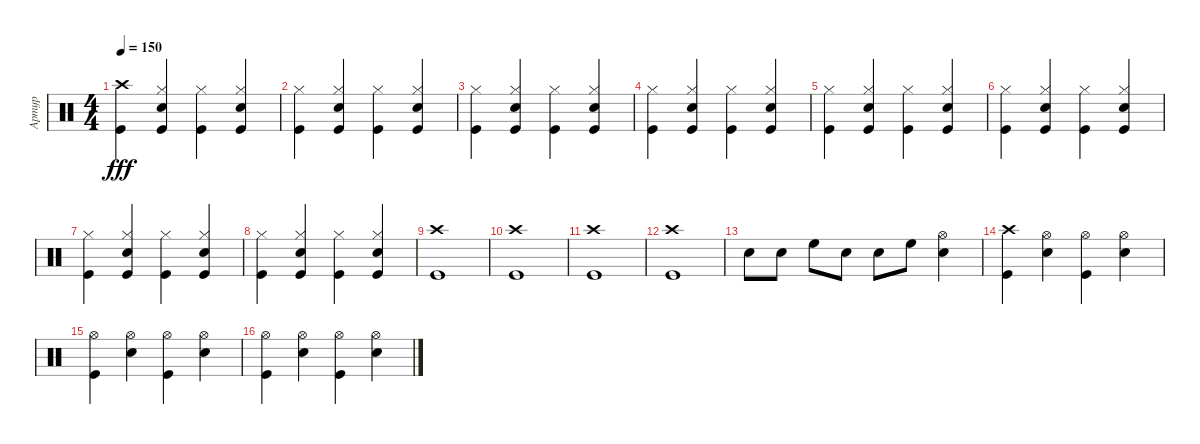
\track ("Артур" "Артур") {instrument percussion}
\staff {score}
\articulation defaults
\ts (4 4)
\tempo 150
\clef neutral
\ks c
("Crash high (hit)" "Kick (hit)").4{dy fff} ("Hi-Hat (closed)" "Electric Snare (hit)" "Kick (hit)").4 ("Hi-Hat (closed)" "Kick (hit)").4 ("Hi-Hat (closed)" "Electric Snare (hit)" "Kick (hit)").4 |
("Hi-Hat (closed)" "Kick (hit)").4 ("Hi-Hat (closed)" "Electric Snare (hit)" "Kick (hit)").4 ("Hi-Hat (closed)" "Kick (hit)").4 ("Hi-Hat (closed)" "Electric Snare (hit)" "Kick (hit)").4 |
("Hi-Hat (closed)" "Kick (hit)").4 ("Hi-Hat (closed)" "Electric Snare (hit)" "Kick (hit)").4 ("Hi-Hat (closed)" "Kick (hit)").4 ("Hi-Hat (closed)" "Electric Snare (hit)" "Kick (hit)").4 |
("Hi-Hat (closed)" "Kick (hit)").4 ("Hi-Hat (closed)" "Electric Snare (hit)" "Kick (hit)").4 ("Hi-Hat (closed)" "Kick (hit)").4 ("Hi-Hat (closed)" "Electric Snare (hit)" "Kick (hit)").4 |
("Hi-Hat (closed)" "Kick (hit)").4 ("Hi-Hat (closed)" "Electric Snare (hit)" "Kick (hit)").4 ("Hi-Hat (closed)" "Kick (hit)").4 ("Hi-Hat (closed)" "Electric Snare (hit)" "Kick (hit)").4 |
("Hi-Hat (closed)" "Kick (hit)").4 ("Hi-Hat (closed)" "Electric Snare (hit)" "Kick (hit)").4 ("Hi-Hat (closed)" "Kick (hit)").4 ("Hi-Hat (closed)" "Electric Snare (hit)" "Kick (hit)").4 |
("Hi-Hat (closed)" "Kick (hit)").4 ("Hi-Hat (closed)" "Electric Snare (hit)" "Kick (hit)").4 ("Hi-Hat (closed)" "Kick (hit)").4 ("Hi-Hat (closed)" "Electric Snare (hit)" "Kick (hit)").4 |
("Hi-Hat (closed)" "Kick (hit)").4 ("Hi-Hat (closed)" "Electric Snare (hit)" "Kick (hit)").4 ("Hi-Hat (closed)" "Kick (hit)").4 ("Hi-Hat (closed)" "Electric Snare (hit)" "Kick (hit)").4 |
("Kick (hit)" "Crash high (hit)").1 |
("Kick (hit)" "Crash high (hit)").1 |
("Kick (hit)" "Crash high (hit)").1 |
("Kick (hit)" "Crash high (hit)").1 |
"Electric Snare (hit)".8 "Electric Snare (hit)".8 "High Floor Tom (hit)".8 "Electric Snare (hit)".8 "Electric Snare (hit)".8 "High Floor Tom (hit)".8 ("Electric Snare (hit)" "Hi-Hat (open)").4 |
("Kick (hit)" "Crash high (hit)").4 ("Hi-Hat (open)" "Electric Snare (hit)").4 ("Hi-Hat (open)" "Kick (hit)").4 ("Hi-Hat (open)" "Electric Snare (hit)").4 |
("Kick (hit)" "Hi-Hat (open)").4 ("Hi-Hat (open)" "Electric Snare (hit)").4 ("Hi-Hat (open)" "Kick (hit)").4 ("Hi-Hat (open)" "Electric Snare (hit)").4 |
("Kick (hit)" "Hi-Hat (open)").4 ("Hi-Hat (open)" "Electric Snare (hit)").4 ("Hi-Hat (open)" "Kick (hit)").4 ("Hi-Hat (open)" "Electric Snare (hit)").4
